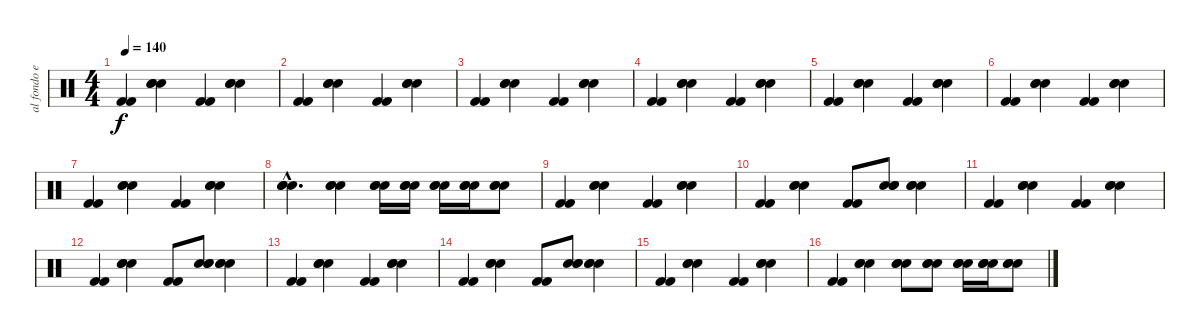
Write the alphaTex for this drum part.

\track ("al fondo en la bateria Mr Pedro Andreu" "al fondo e") {instrument percussion}
\staff {score}
\articulation defaults
\ts (4 4)
\tempo 140
\clef neutral
\ks c
("Kick (hit) 2" "Kick (hit) 2").4{dy f} ("Snare (hit) 2" "Snare (hit) 2" "Snare (hit) 2").4 ("Kick (hit) 2" "Kick (hit) 2").4 ("Snare (hit) 2" "Snare (hit) 2" "Snare (hit) 2").4 |
("Kick (hit) 2" "Kick (hit) 2").4 ("Snare (hit) 2" "Snare (hit) 2" "Snare (hit) 2").4 ("Kick (hit) 2" "Kick (hit) 2").4 ("Snare (hit) 2" "Snare (hit) 2" "Snare (hit) 2").4 |
("Kick (hit) 2" "Kick (hit) 2").4 ("Snare (hit) 2" "Snare (hit) 2" "Snare (hit) 2").4 ("Kick (hit) 2" "Kick (hit) 2").4 ("Snare (hit) 2" "Snare (hit) 2" "Snare (hit) 2").4 |
("Kick (hit) 2" "Kick (hit) 2").4 ("Snare (hit) 2" "Snare (hit) 2" "Snare (hit) 2").4 ("Kick (hit) 2" "Kick (hit) 2").4 ("Snare (hit) 2" "Snare (hit) 2" "Snare (hit) 2").4 |
("Kick (hit) 2" "Kick (hit) 2").4 ("Snare (hit) 2" "Snare (hit) 2" "Snare (hit) 2").4 ("Kick (hit) 2" "Kick (hit) 2").4 ("Snare (hit) 2" "Snare (hit) 2" "Snare (hit) 2").4 |
("Kick (hit) 2" "Kick (hit) 2").4 ("Snare (hit) 2" "Snare (hit) 2" "Snare (hit) 2").4 ("Kick (hit) 2" "Kick (hit) 2").4 ("Snare (hit) 2" "Snare (hit) 2" "Snare (hit) 2").4 |
("Kick (hit) 2" "Kick (hit) 2").4 ("Snare (hit) 2" "Snare (hit) 2" "Snare (hit) 2").4 ("Kick (hit) 2" "Kick (hit) 2").4 ("Snare (hit) 2" "Snare (hit) 2" "Snare (hit) 2").4 |
("Snare (hit) 2"{hac} "Snare (hit) 2"{hac} "Snare (hit) 2"{hac}).4{d} ("Snare (hit) 2" "Snare (hit) 2" "Snare (hit) 2").4 ("Snare (hit) 2" "Snare (hit) 2" "Snare (hit) 2").16 ("Snare (hit) 2" "Snare (hit) 2" "Snare (hit) 2").16 ("Snare (hit) 2" "Snare (hit) 2" "Snare (hit) 2").16 ("Snare (hit) 2" "Snare (hit) 2" "Snare (hit) 2").16 ("Snare (hit) 2" "Snare (hit) 2" "Snare (hit) 2").8 |
("Kick (hit) 2" "Kick (hit) 2").4 ("Snare (hit) 2" "Snare (hit) 2" "Snare (hit) 2").4 ("Kick (hit) 2" "Kick (hit) 2").4 ("Snare (hit) 2" "Snare (hit) 2" "Snare (hit) 2").4 |
("Kick (hit) 2" "Kick (hit) 2").4 ("Snare (hit) 2" "Snare (hit) 2" "Snare (hit) 2").4 ("Kick (hit) 2" "Kick (hit) 2").8 ("Snare (hit) 2" "Snare (hit) 2" "Snare (hit) 2").8 ("Snare (hit) 2" "Snare (hit) 2" "Snare (hit) 2").4 |
("Kick (hit) 2" "Kick (hit) 2").4 ("Snare (hit) 2" "Snare (hit) 2" "Snare (hit) 2").4 ("Kick (hit) 2" "Kick (hit) 2").4 ("Snare (hit) 2" "Snare (hit) 2" "Snare (hit) 2").4 |
("Kick (hit) 2" "Kick (hit) 2").4 ("Snare (hit) 2" "Snare (hit) 2" "Snare (hit) 2").4 ("Kick (hit) 2" "Kick (hit) 2").8 ("Snare (hit) 2" "Snare (hit) 2" "Snare (hit) 2").8 ("Snare (hit) 2" "Snare (hit) 2" "Snare (hit) 2").4 |
("Kick (hit) 2" "Kick (hit) 2").4 ("Snare (hit) 2" "Snare (hit) 2" "Snare (hit) 2").4 ("Kick (hit) 2" "Kick (hit) 2").4 ("Snare (hit) 2" "Snare (hit) 2" "Snare (hit) 2").4 |
("Kick (hit) 2" "Kick (hit) 2").4 ("Snare (hit) 2" "Snare (hit) 2" "Snare (hit) 2").4 ("Kick (hit) 2" "Kick (hit) 2").8 ("Snare (hit) 2" "Snare (hit) 2" "Snare (hit) 2").8 ("Snare (hit) 2" "Snare (hit) 2" "Snare (hit) 2").4 |
("Kick (hit) 2" "Kick (hit) 2").4 ("Snare (hit) 2" "Snare (hit) 2" "Snare (hit) 2").4 ("Kick (hit) 2" "Kick (hit) 2").4 ("Snare (hit) 2" "Snare (hit) 2" "Snare (hit) 2").4 |
("Kick (hit) 2" "Kick (hit) 2").4 ("Snare (hit) 2" "Snare (hit) 2" "Snare (hit) 2").4 ("Snare (hit) 2" "Snare (hit) 2" "Snare (hit) 2").8 ("Snare (hit) 2" "Snare (hit) 2" "Snare (hit) 2").8 ("Snare (hit) 2" "Snare (hit) 2" "Snare (hit) 2").16 ("Snare (hit) 2" "Snare (hit) 2" "Snare (hit) 2").16 ("Snare (hit) 2" "Snare (hit) 2" "Snare (hit) 2").8
